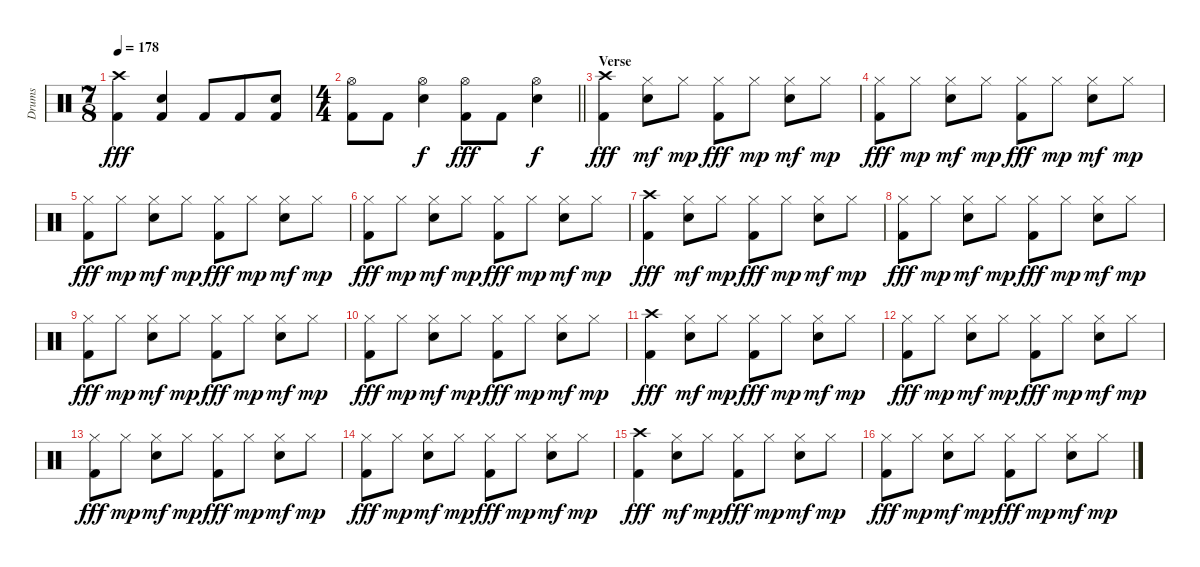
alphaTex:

\track ("Drums" "Drums") {instrument percussion}
\staff {score}
\articulation defaults
\ts (7 8)
\tempo 178
\clef neutral
\ks c
("Crash high (hit)" "Kick (hit) 2").4{dy fff} ("Electric Snare (hit)" "Kick (hit) 2").4 "Kick (hit) 2".8 "Kick (hit) 2".8 ("Electric Snare (hit)" "Kick (hit) 2").8 |
\ts (4 4)
\barLineRight lightlight
("Hi-Hat (open)" "Kick (hit) 2").8 "Kick (hit) 2".8 ("Hi-Hat (open)" "Electric Snare (hit)").4{dy f} ("Hi-Hat (open)" "Kick (hit) 2").8{dy fff} "Kick (hit) 2".8 ("Hi-Hat (open)" "Electric Snare (hit)").4{dy f} |
\section ("" "Verse")
("Crash high (hit)" "Kick (hit) 2").4{dy fff} ("Hi-Hat (closed)" "Electric Snare (hit)").8{dy mf} "Hi-Hat (closed)".8{dy mp} ("Hi-Hat (closed)" "Kick (hit) 2").8{dy fff} "Hi-Hat (closed)".8{dy mp} ("Hi-Hat (closed)" "Electric Snare (hit)").8{dy mf} "Hi-Hat (closed)".8{dy mp} |
("Hi-Hat (closed)" "Kick (hit) 2").8{dy fff} "Hi-Hat (closed)".8{dy mp} ("Hi-Hat (closed)" "Electric Snare (hit)").8{dy mf} "Hi-Hat (closed)".8{dy mp} ("Hi-Hat (closed)" "Kick (hit) 2").8{dy fff} "Hi-Hat (closed)".8{dy mp} ("Hi-Hat (closed)" "Electric Snare (hit)").8{dy mf} "Hi-Hat (closed)".8{dy mp} |
("Hi-Hat (closed)" "Kick (hit) 2").8{dy fff} "Hi-Hat (closed)".8{dy mp} ("Hi-Hat (closed)" "Electric Snare (hit)").8{dy mf} "Hi-Hat (closed)".8{dy mp} ("Hi-Hat (closed)" "Kick (hit) 2").8{dy fff} "Hi-Hat (closed)".8{dy mp} ("Hi-Hat (closed)" "Electric Snare (hit)").8{dy mf} "Hi-Hat (closed)".8{dy mp} |
("Hi-Hat (closed)" "Kick (hit) 2").8{dy fff} "Hi-Hat (closed)".8{dy mp} ("Hi-Hat (closed)" "Electric Snare (hit)").8{dy mf} "Hi-Hat (closed)".8{dy mp} ("Hi-Hat (closed)" "Kick (hit) 2").8{dy fff} "Hi-Hat (closed)".8{dy mp} ("Hi-Hat (closed)" "Electric Snare (hit)").8{dy mf} "Hi-Hat (closed)".8{dy mp} |
("Crash high (hit)" "Kick (hit) 2").4{dy fff} ("Hi-Hat (closed)" "Electric Snare (hit)").8{dy mf} "Hi-Hat (closed)".8{dy mp} ("Hi-Hat (closed)" "Kick (hit) 2").8{dy fff} "Hi-Hat (closed)".8{dy mp} ("Hi-Hat (closed)" "Electric Snare (hit)").8{dy mf} "Hi-Hat (closed)".8{dy mp} |
("Hi-Hat (closed)" "Kick (hit) 2").8{dy fff} "Hi-Hat (closed)".8{dy mp} ("Hi-Hat (closed)" "Electric Snare (hit)").8{dy mf} "Hi-Hat (closed)".8{dy mp} ("Hi-Hat (closed)" "Kick (hit) 2").8{dy fff} "Hi-Hat (closed)".8{dy mp} ("Hi-Hat (closed)" "Electric Snare (hit)").8{dy mf} "Hi-Hat (closed)".8{dy mp} |
("Hi-Hat (closed)" "Kick (hit) 2").8{dy fff} "Hi-Hat (closed)".8{dy mp} ("Hi-Hat (closed)" "Electric Snare (hit)").8{dy mf} "Hi-Hat (closed)".8{dy mp} ("Hi-Hat (closed)" "Kick (hit) 2").8{dy fff} "Hi-Hat (closed)".8{dy mp} ("Hi-Hat (closed)" "Electric Snare (hit)").8{dy mf} "Hi-Hat (closed)".8{dy mp} |
("Hi-Hat (closed)" "Kick (hit) 2").8{dy fff} "Hi-Hat (closed)".8{dy mp} ("Hi-Hat (closed)" "Electric Snare (hit)").8{dy mf} "Hi-Hat (closed)".8{dy mp} ("Hi-Hat (closed)" "Kick (hit) 2").8{dy fff} "Hi-Hat (closed)".8{dy mp} ("Hi-Hat (closed)" "Electric Snare (hit)").8{dy mf} "Hi-Hat (closed)".8{dy mp} |
("Crash high (hit)" "Kick (hit) 2").4{dy fff} ("Hi-Hat (closed)" "Electric Snare (hit)").8{dy mf} "Hi-Hat (closed)".8{dy mp} ("Hi-Hat (closed)" "Kick (hit) 2").8{dy fff} "Hi-Hat (closed)".8{dy mp} ("Hi-Hat (closed)" "Electric Snare (hit)").8{dy mf} "Hi-Hat (closed)".8{dy mp} |
("Hi-Hat (closed)" "Kick (hit) 2").8{dy fff} "Hi-Hat (closed)".8{dy mp} ("Hi-Hat (closed)" "Electric Snare (hit)").8{dy mf} "Hi-Hat (closed)".8{dy mp} ("Hi-Hat (closed)" "Kick (hit) 2").8{dy fff} "Hi-Hat (closed)".8{dy mp} ("Hi-Hat (closed)" "Electric Snare (hit)").8{dy mf} "Hi-Hat (closed)".8{dy mp} |
("Hi-Hat (closed)" "Kick (hit) 2").8{dy fff} "Hi-Hat (closed)".8{dy mp} ("Hi-Hat (closed)" "Electric Snare (hit)").8{dy mf} "Hi-Hat (closed)".8{dy mp} ("Hi-Hat (closed)" "Kick (hit) 2").8{dy fff} "Hi-Hat (closed)".8{dy mp} ("Hi-Hat (closed)" "Electric Snare (hit)").8{dy mf} "Hi-Hat (closed)".8{dy mp} |
("Hi-Hat (closed)" "Kick (hit) 2").8{dy fff} "Hi-Hat (closed)".8{dy mp} ("Hi-Hat (closed)" "Electric Snare (hit)").8{dy mf} "Hi-Hat (closed)".8{dy mp} ("Hi-Hat (closed)" "Kick (hit) 2").8{dy fff} "Hi-Hat (closed)".8{dy mp} ("Hi-Hat (closed)" "Electric Snare (hit)").8{dy mf} "Hi-Hat (closed)".8{dy mp} |
("Crash high (hit)" "Kick (hit) 2").4{dy fff} ("Hi-Hat (closed)" "Electric Snare (hit)").8{dy mf} "Hi-Hat (closed)".8{dy mp} ("Hi-Hat (closed)" "Kick (hit) 2").8{dy fff} "Hi-Hat (closed)".8{dy mp} ("Hi-Hat (closed)" "Electric Snare (hit)").8{dy mf} "Hi-Hat (closed)".8{dy mp} |
("Hi-Hat (closed)" "Kick (hit) 2").8{dy fff} "Hi-Hat (closed)".8{dy mp} ("Hi-Hat (closed)" "Electric Snare (hit)").8{dy mf} "Hi-Hat (closed)".8{dy mp} ("Hi-Hat (closed)" "Kick (hit) 2").8{dy fff} "Hi-Hat (closed)".8{dy mp} ("Hi-Hat (closed)" "Electric Snare (hit)").8{dy mf} "Hi-Hat (closed)".8{dy mp}
